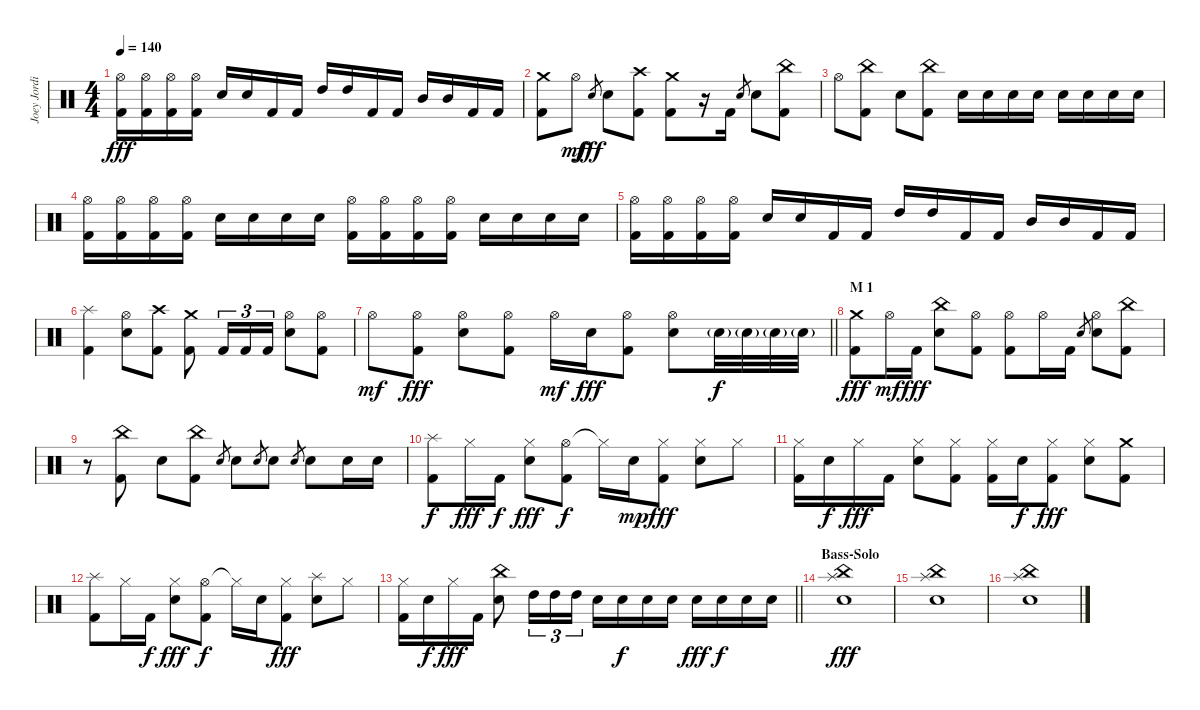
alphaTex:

\track ("Joey Jordison" "Joey Jordi") {instrument percussion}
\staff {score}
\articulation defaults
\ts (4 4)
\tempo 140
\clef neutral
\ks c
("Hi-Hat (open)" "Kick (hit) 2").16{dy fff} ("Hi-Hat (open)" "Kick (hit) 2").16 ("Hi-Hat (open)" "Kick (hit) 2").16 ("Hi-Hat (open)" "Kick (hit) 2").16 "Electric Snare (hit)".16 "Electric Snare (hit)".16 "Kick (hit) 2".16 "Kick (hit) 2".16 "High Tom (hit)".16 "High Tom (hit)".16 "Kick (hit) 2".16 "Kick (hit) 2".16 "Mid Tom (hit)".16 "Mid Tom (hit)".16 "Kick (hit) 2".16 "Kick (hit) 2".16 |
("Crash medium (hit)" "Kick (hit) 2").8 "Hi-Hat (open)".8{dy mf} "Electric Snare (hit)".8{gr dy fff} "Electric Snare (hit)".8 ("Crash high (hit)" "Kick (hit) 2").8 ("Crash medium (hit)" "Kick (hit) 2").8 r.16 "Kick (hit) 2".16 "Electric Snare (hit)".8{gr} "Electric Snare (hit)".8 ("China (hit)" "Kick (hit) 2").8 |
"Hi-Hat (open)".8 ("China (hit)" "Kick (hit) 2").8 "Electric Snare (hit)".8 ("China (hit)" "Kick (hit) 2").8 "Electric Snare (hit)".16 "Electric Snare (hit)".16 "Electric Snare (hit)".16 "Electric Snare (hit)".16 "Electric Snare (hit)".16 "Electric Snare (hit)".16 "Electric Snare (hit)".16 "Electric Snare (hit)".16 |
("Hi-Hat (open)" "Kick (hit) 2").16 ("Hi-Hat (open)" "Kick (hit) 2").16 ("Hi-Hat (open)" "Kick (hit) 2").16 ("Hi-Hat (open)" "Kick (hit) 2").16 "Electric Snare (hit)".16 "Electric Snare (hit)".16 "Electric Snare (hit)".16 "Electric Snare (hit)".16 ("Hi-Hat (open)" "Kick (hit) 2").16 ("Hi-Hat (open)" "Kick (hit) 2").16 ("Hi-Hat (open)" "Kick (hit) 2").16 ("Hi-Hat (open)" "Kick (hit) 2").16 "Electric Snare (hit)".16 "Electric Snare (hit)".16 "Electric Snare (hit)".16 "Electric Snare (hit)".16 |
("Hi-Hat (open)" "Kick (hit) 2").16 ("Hi-Hat (open)" "Kick (hit) 2").16 ("Hi-Hat (open)" "Kick (hit) 2").16 ("Hi-Hat (open)" "Kick (hit) 2").16 "Electric Snare (hit)".16 "Electric Snare (hit)".16 "Kick (hit) 2".16 "Kick (hit) 2".16 "High Tom (hit)".16 "High Tom (hit)".16 "Kick (hit) 2".16 "Kick (hit) 2".16 "Mid Tom (hit)".16 "Mid Tom (hit)".16 "Kick (hit) 2".16 "Kick (hit) 2".16 |
("Splash (hit)" "Kick (hit) 2").4 ("Hi-Hat (open)" "Electric Snare (hit)").8 ("Crash high (hit)" "Kick (hit) 2").8 ("Crash medium (hit)" "Kick (hit) 2").8 "Kick (hit) 2".16{tu (3 2)} "Kick (hit) 2".16{tu (3 2)} "Kick (hit) 2".16{tu (3 2)} ("Hi-Hat (open)" "Electric Snare (hit)").8 ("Hi-Hat (open)" "Kick (hit) 2").8 |
\barLineRight lightlight "Hi-Hat (open)".8{dy mf}
("Hi-Hat (open)" "Kick (hit) 2").8{dy fff} ("Hi-Hat (open)" "Electric Snare (hit)").8 ("Hi-Hat (open)" "Kick (hit) 2").8 "Hi-Hat (open)".16{dy mf} "Electric Snare (hit)".16{dy fff} ("Hi-Hat (open)" "Kick (hit) 2").8 ("Hi-Hat (open)" "Electric Snare (hit)").8 "Electric Snare (hit)"{g}.32{dy f} "Electric Snare (hit)"{g}.32 "Electric Snare (hit)"{g}.32 "Electric Snare (hit)"{g}.32 |
\section ("" "M 1")
("Crash medium (hit)" "Kick (hit) 2").8{dy fff} "Hi-Hat (open)".16{dy mf} "Kick (hit) 2".16{dy fff} ("China (hit)" "Electric Snare (hit)").8 ("Hi-Hat (open)" "Kick (hit) 2").8 ("Hi-Hat (open)" "Kick (hit) 2").8 "Hi-Hat (open)".16 "Kick (hit) 2".16 "Electric Snare (hit)".8{gr} ("Hi-Hat (open)" "Electric Snare (hit)").8 ("China (hit)" "Kick (hit) 2").8 |
r.8 ("China (hit)" "Kick (hit) 2").8 "Electric Snare (hit)".8 ("China (hit)" "Kick (hit) 2").8 "Electric Snare (hit)".8{gr} "Electric Snare (hit)".8 "Electric Snare (hit)".8{gr} "Electric Snare (hit)".8 "Electric Snare (hit)".8{gr} "Electric Snare (hit)".8 "Electric Snare (hit)".16 "Electric Snare (hit)".16 |
("Splash (hit)" "Kick (hit) 2").8{dy f} "Hi-Hat (closed)".16{dy fff} "Kick (hit) 2".16{dy f} ("Hi-Hat (closed)" "Electric Snare (hit)").8{dy fff} ("Hi-Hat (open)" "Kick (hit) 2").8{dy f} "Hi-Hat (closed)"{t}.16 "Electric Snare (hit)".16{dy mp} ("Hi-Hat (closed)" "Kick (hit) 2").8{dy fff} ("Hi-Hat (closed)" "Electric Snare (hit)").8 "Hi-Hat (closed)".8 |
("Hi-Hat (closed)" "Kick (hit) 2").16 "Electric Snare (hit)".16{dy f} "Hi-Hat (closed)".16{dy fff} "Kick (hit) 2".16 ("Hi-Hat (closed)" "Electric Snare (hit)").8 ("Hi-Hat (closed)" "Kick (hit) 2").8 ("Hi-Hat (closed)" "Kick (hit) 2").16 "Electric Snare (hit)".16{dy f} ("Hi-Hat (closed)" "Kick (hit) 2").8{dy fff} ("Hi-Hat (closed)" "Electric Snare (hit)").8 ("Crash medium (hit)" "Kick (hit) 2").8 |
("Splash (hit)" "Kick (hit) 2").8 "Hi-Hat (closed)".16 "Kick (hit) 2".16{dy f} ("Hi-Hat (closed)" "Electric Snare (hit)").8{dy fff} ("Hi-Hat (open)" "Kick (hit) 2").8{dy f} "Hi-Hat (closed)"{t}.16 "Electric Snare (hit)".16 ("Hi-Hat (closed)" "Kick (hit) 2").8{dy fff} ("Splash (hit)" "Electric Snare (hit)").8 "Hi-Hat (closed)".8 |
\barLineRight lightlight
("Hi-Hat (closed)" "Kick (hit) 2").16 "Electric Snare (hit)".16{dy f} "Hi-Hat (closed)".16{dy fff} "Kick (hit) 2".16 ("China (hit)" "Electric Snare (hit)").8 "High Tom (hit)".16{tu (3 2)} "High Tom (hit)".16{tu (3 2)} "High Tom (hit)".16{tu (3 2)} "Electric Snare (hit)".16 "Electric Snare (hit)".16{dy f} "Electric Snare (hit)".16 "Electric Snare (hit)".16 "Electric Snare (hit)".16{dy fff} "Electric Snare (hit)".16{dy f} "Electric Snare (hit)".16 "Electric Snare (hit)".16 |
\section ("" "Bass-Solo")
("China (hit)" "Splash (hit)" "Electric Snare (hit)").1{dy fff} |
("China (hit)" "Splash (hit)" "Electric Snare (hit)").1 |
("China (hit)" "Splash (hit)" "Electric Snare (hit)").1
